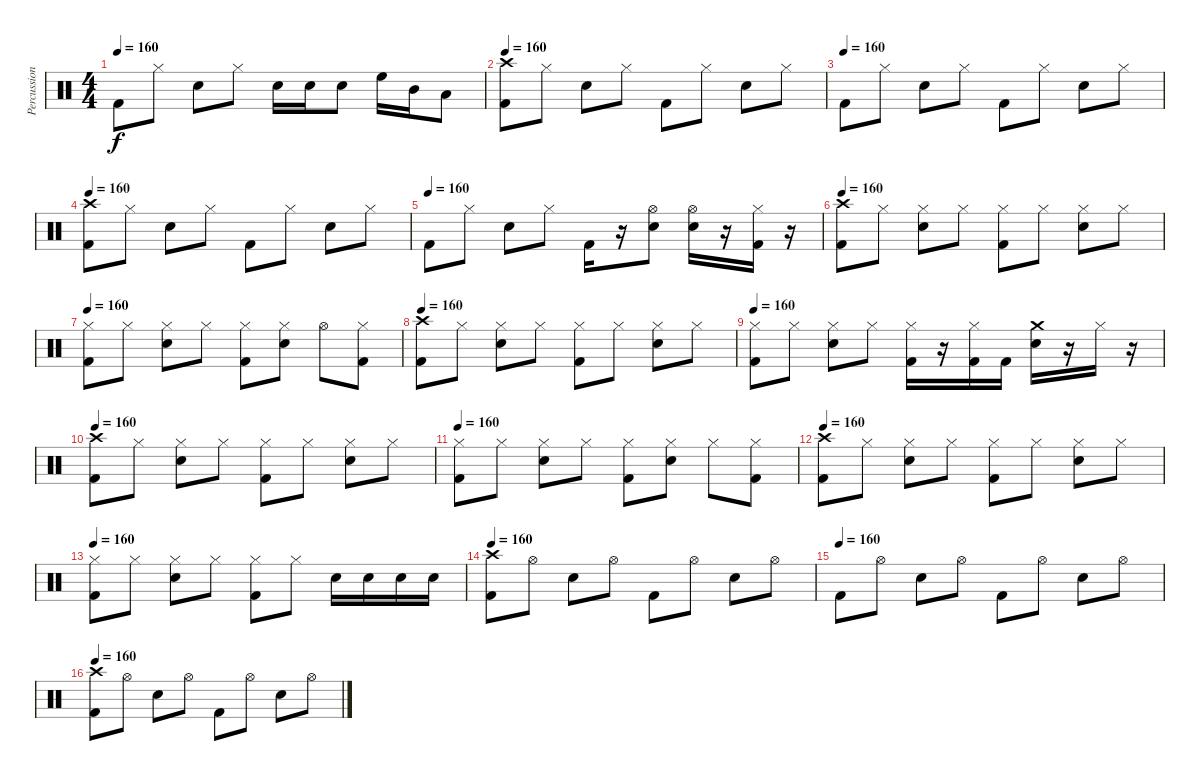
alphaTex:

\track ("Percussion" "Percussion") {instrument percussion}
\staff {score}
\articulation defaults
\ts (4 4)
\tempo 160
\clef neutral
\ks c "Kick (hit) 2".8{dy f} "Hi-Hat (closed)".8 "Snare (hit) 2".8 "Hi-Hat (closed)".8 "Snare (hit) 2".16 "Snare (hit) 2".16 "Snare (hit) 2".8 "High Floor Tom (hit)".16 "Mid Tom (hit)".16 "Low Tom (hit)".8
|
\tempo 160
("Crash high (hit)" "Kick (hit) 2").8 "Hi-Hat (closed)".8 "Snare (hit) 2".8 "Hi-Hat (closed)".8 "Kick (hit) 2".8 "Hi-Hat (closed)".8 "Snare (hit) 2".8 "Hi-Hat (closed)".8 |
\tempo (160)
"Kick (hit) 2".8 "Hi-Hat (closed)".8 "Snare (hit) 2".8 "Hi-Hat (closed)".8 "Kick (hit) 2".8 "Hi-Hat (closed)".8 "Snare (hit) 2".8 "Hi-Hat (closed)".8 |
\tempo 160
("Crash high (hit)" "Kick (hit) 2").8 "Hi-Hat (closed)".8 "Snare (hit) 2".8 "Hi-Hat (closed)".8 "Kick (hit) 2".8 "Hi-Hat (closed)".8 "Snare (hit) 2".8 "Hi-Hat (closed)".8 |
\tempo (160)
"Kick (hit) 2".8 "Hi-Hat (closed)".8 "Snare (hit) 2".8 "Hi-Hat (closed)".8 "Kick (hit) 2".16 r.16 ("Hi-Hat (open)" "Snare (hit) 2").8 ("Hi-Hat (open)" "Snare (hit) 2").16 r.16 ("Hi-Hat (closed)" "Kick (hit) 2").16 r.16 |
\tempo 160
("Crash high (hit)" "Kick (hit) 2").8 "Hi-Hat (closed)".8 ("Hi-Hat (closed)" "Snare (hit) 2").8 "Hi-Hat (closed)".8 ("Hi-Hat (closed)" "Kick (hit) 2").8 "Hi-Hat (closed)".8 ("Hi-Hat (closed)" "Snare (hit) 2").8 "Hi-Hat (closed)".8 |
\tempo 160
("Hi-Hat (closed)" "Kick (hit) 2").8 "Hi-Hat (closed)".8 ("Hi-Hat (closed)" "Snare (hit) 2").8 "Hi-Hat (closed)".8 ("Hi-Hat (closed)" "Kick (hit) 2").8 ("Hi-Hat (closed)" "Snare (hit) 2").8 "Hi-Hat (open)".8 ("Hi-Hat (closed)" "Kick (hit) 2").8 |
\tempo 160
("Crash high (hit)" "Kick (hit) 2").8 "Hi-Hat (closed)".8 ("Hi-Hat (closed)" "Snare (hit) 2").8 "Hi-Hat (closed)".8 ("Hi-Hat (closed)" "Kick (hit) 2").8 "Hi-Hat (closed)".8 ("Hi-Hat (closed)" "Snare (hit) 2").8 "Hi-Hat (closed)".8 |
\tempo 160
("Hi-Hat (closed)" "Kick (hit) 2").8 "Hi-Hat (closed)".8 ("Hi-Hat (closed)" "Snare (hit) 2").8 "Hi-Hat (closed)".8 ("Hi-Hat (closed)" "Kick (hit) 2").16 r.16 ("Hi-Hat (closed)" "Kick (hit) 2").16 "Kick (hit) 2".16 ("Crash medium (hit)" "Snare (hit) 2").16 r.16 "Hi-Hat (closed)".16 r.16 |
\tempo 160
("Crash high (hit)" "Kick (hit) 2").8 "Hi-Hat (closed)".8 ("Hi-Hat (closed)" "Snare (hit) 2").8 "Hi-Hat (closed)".8 ("Hi-Hat (closed)" "Kick (hit) 2").8 "Hi-Hat (closed)".8 ("Hi-Hat (closed)" "Snare (hit) 2").8 "Hi-Hat (closed)".8 |
\tempo 160
("Hi-Hat (closed)" "Kick (hit) 2").8 "Hi-Hat (closed)".8 ("Hi-Hat (closed)" "Snare (hit) 2").8 "Hi-Hat (closed)".8 ("Hi-Hat (closed)" "Kick (hit) 2").8 ("Hi-Hat (closed)" "Snare (hit) 2").8 "Hi-Hat (closed)".8 ("Hi-Hat (closed)" "Kick (hit) 2").8 |
\tempo 160
("Crash high (hit)" "Kick (hit) 2").8 "Hi-Hat (closed)".8 ("Hi-Hat (closed)" "Snare (hit) 2").8 "Hi-Hat (closed)".8 ("Hi-Hat (closed)" "Kick (hit) 2").8 "Hi-Hat (closed)".8 ("Hi-Hat (closed)" "Snare (hit) 2").8 "Hi-Hat (closed)".8 |
\tempo 160
("Hi-Hat (closed)" "Kick (hit) 2").8 "Hi-Hat (closed)".8 ("Hi-Hat (closed)" "Snare (hit) 2").8 "Hi-Hat (closed)".8 ("Hi-Hat (closed)" "Kick (hit) 2").8 "Hi-Hat (closed)".8 "Snare (hit) 2".16 "Snare (hit) 2".16 "Snare (hit) 2".16 "Snare (hit) 2".16 |
\tempo 160
("Crash high (hit)" "Kick (hit) 2").8 "Hi-Hat (open)".8 "Snare (hit) 2".8 "Hi-Hat (open)".8 "Kick (hit) 2".8 "Hi-Hat (open)".8 "Snare (hit) 2".8 "Hi-Hat (open)".8 |
\tempo (160)
"Kick (hit) 2".8 "Hi-Hat (open)".8 "Snare (hit) 2".8 "Hi-Hat (open)".8 "Kick (hit) 2".8 "Hi-Hat (open)".8 "Snare (hit) 2".8 "Hi-Hat (open)".8 |
\tempo 160
("Crash high (hit)" "Kick (hit) 2").8 "Hi-Hat (open)".8 "Snare (hit) 2".8 "Hi-Hat (open)".8 "Kick (hit) 2".8 "Hi-Hat (open)".8 "Snare (hit) 2".8 "Hi-Hat (open)".8
